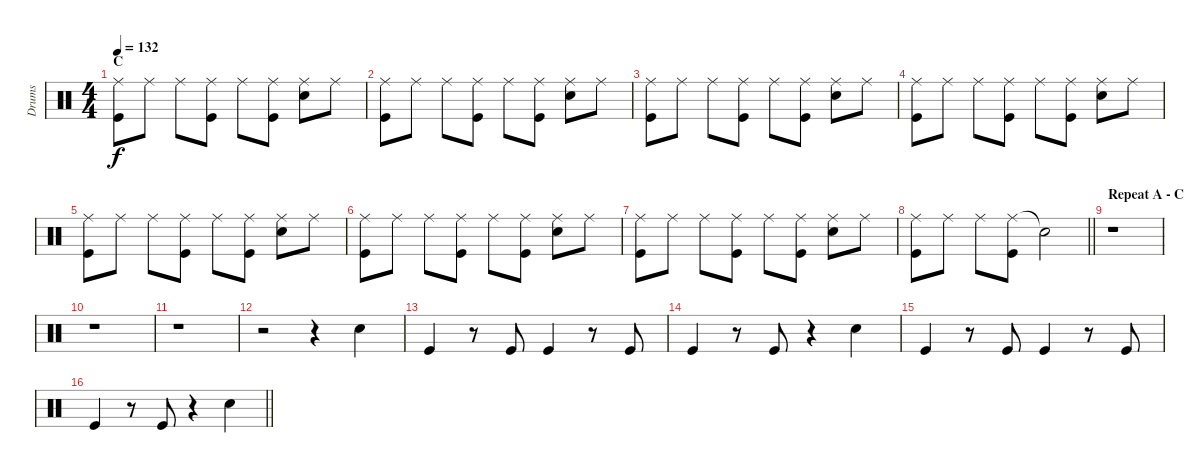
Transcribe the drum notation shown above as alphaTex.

\track ("Drums" "Drums") {instrument percussion}
\staff {score}
\articulation defaults
\ts (4 4)
\section ("" "C")
\tempo 132
\clef neutral
\ks c
("Ride (middle)" "Kick (hit)").8{dy f} "Ride (middle)".8 "Ride (middle)".8 ("Ride (middle)" "Kick (hit)").8 "Ride (middle)".8 ("Ride (middle)" "Kick (hit)").8 ("Ride (middle)" "Electric Snare (hit)").8 "Ride (middle)".8 |
("Ride (middle)" "Kick (hit)").8 "Ride (middle)".8 "Ride (middle)".8 ("Ride (middle)" "Kick (hit)").8 "Ride (middle)".8 ("Ride (middle)" "Kick (hit)").8 ("Ride (middle)" "Electric Snare (hit)").8 "Ride (middle)".8 |
("Ride (middle)" "Kick (hit)").8 "Ride (middle)".8 "Ride (middle)".8 ("Ride (middle)" "Kick (hit)").8 "Ride (middle)".8 ("Ride (middle)" "Kick (hit)").8 ("Ride (middle)" "Electric Snare (hit)").8 "Ride (middle)".8 |
("Ride (middle)" "Kick (hit)").8 "Ride (middle)".8 "Ride (middle)".8 ("Ride (middle)" "Kick (hit)").8 "Ride (middle)".8 ("Ride (middle)" "Kick (hit)").8 ("Ride (middle)" "Electric Snare (hit)").8 "Ride (middle)".8 |
("Ride (middle)" "Kick (hit)").8 "Ride (middle)".8 "Ride (middle)".8 ("Ride (middle)" "Kick (hit)").8 "Ride (middle)".8 ("Ride (middle)" "Kick (hit)").8 ("Ride (middle)" "Electric Snare (hit)").8 "Ride (middle)".8 |
("Ride (middle)" "Kick (hit)").8 "Ride (middle)".8 "Ride (middle)".8 ("Ride (middle)" "Kick (hit)").8 "Ride (middle)".8 ("Ride (middle)" "Kick (hit)").8 ("Ride (middle)" "Electric Snare (hit)").8 "Ride (middle)".8 |
("Ride (middle)" "Kick (hit)").8 "Ride (middle)".8 "Ride (middle)".8 ("Ride (middle)" "Kick (hit)").8 "Ride (middle)".8 ("Ride (middle)" "Kick (hit)").8 ("Ride (middle)" "Electric Snare (hit)").8 "Ride (middle)".8 |
\barLineRight lightlight
("Ride (middle)" "Kick (hit)").8 "Ride (middle)".8 "Ride (middle)".8 ("Ride (middle)" "Kick (hit)").8 "Snare (hit)"{t}.2 |
\section ("" "Repeat A - C")
r.1 |
r.1 |
r.1 |
r.2 r.4 "Electric Snare (hit)".4 |
"Kick (hit)".4 r.8 "Kick (hit)".8 "Kick (hit)".4 r.8 "Kick (hit)".8 |
"Kick (hit)".4 r.8 "Kick (hit)".8 r.4 "Electric Snare (hit)".4 |
"Kick (hit)".4 r.8 "Kick (hit)".8 "Kick (hit)".4 r.8 "Kick (hit)".8 |
\barLineRight lightlight "Kick (hit)".4
r.8 "Kick (hit)".8 r.4 "Electric Snare (hit)".4
